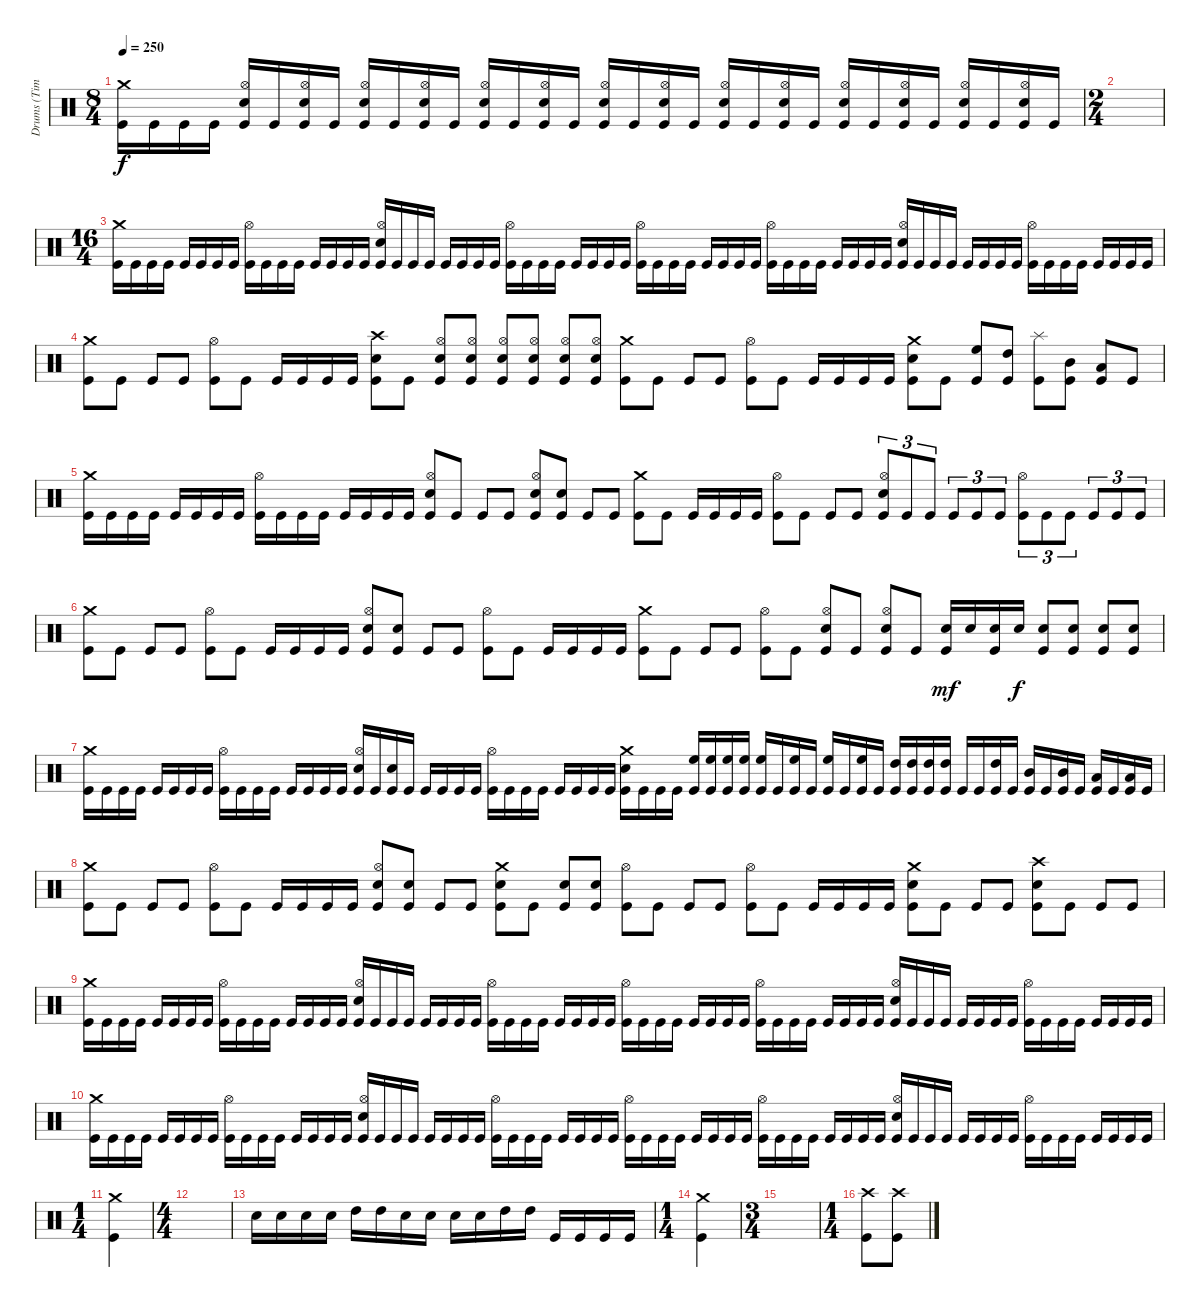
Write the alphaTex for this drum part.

\track ("Drums (Tim Yeung)" "Drums (Tim") {instrument percussion}
\staff {score}
\articulation defaults
\ts (8 4)
\tempo 250
\clef neutral
\ks c
("Crash medium (hit)" "Kick (hit)").16{dy f} "Kick (hit)".16 "Kick (hit)".16 "Kick (hit)".16 ("Hi-Hat (open)" "Electric Snare (hit)" "Kick (hit)").16 "Kick (hit)".16 ("Hi-Hat (open)" "Electric Snare (hit)" "Kick (hit)").16 "Kick (hit)".16 ("Hi-Hat (open)" "Electric Snare (hit)" "Kick (hit)").16 "Kick (hit)".16 ("Hi-Hat (open)" "Electric Snare (hit)" "Kick (hit)").16 "Kick (hit)".16 ("Hi-Hat (open)" "Electric Snare (hit)" "Kick (hit)").16 "Kick (hit)".16 ("Hi-Hat (open)" "Electric Snare (hit)" "Kick (hit)").16 "Kick (hit)".16 ("Hi-Hat (open)" "Electric Snare (hit)" "Kick (hit)").16 "Kick (hit)".16 ("Hi-Hat (open)" "Electric Snare (hit)" "Kick (hit)").16 "Kick (hit)".16 ("Hi-Hat (open)" "Electric Snare (hit)" "Kick (hit)").16 "Kick (hit)".16 ("Hi-Hat (open)" "Electric Snare (hit)" "Kick (hit)").16 "Kick (hit)".16 ("Hi-Hat (open)" "Electric Snare (hit)" "Kick (hit)").16 "Kick (hit)".16 ("Hi-Hat (open)" "Electric Snare (hit)" "Kick (hit)").16 "Kick (hit)".16 ("Hi-Hat (open)" "Electric Snare (hit)" "Kick (hit)").16 "Kick (hit)".16 ("Hi-Hat (open)" "Electric Snare (hit)" "Kick (hit)").16 "Kick (hit)".16 |
\ts (2 4)
|
\ts (16 4)
("Crash medium (hit)" "Kick (hit)").16 "Kick (hit)".16 "Kick (hit)".16 "Kick (hit)".16 "Kick (hit)".16 "Kick (hit)".16 "Kick (hit)".16 "Kick (hit)".16 ("Hi-Hat (open)" "Kick (hit)").16 "Kick (hit)".16 "Kick (hit)".16 "Kick (hit)".16 "Kick (hit)".16 "Kick (hit)".16 "Kick (hit)".16 "Kick (hit)".16 ("Hi-Hat (open)" "Electric Snare (hit)" "Kick (hit)").16 "Kick (hit)".16 "Kick (hit)".16 "Kick (hit)".16 "Kick (hit)".16 "Kick (hit)".16 "Kick (hit)".16 "Kick (hit)".16 ("Hi-Hat (open)" "Kick (hit)").16 "Kick (hit)".16 "Kick (hit)".16 "Kick (hit)".16 "Kick (hit)".16 "Kick (hit)".16 "Kick (hit)".16 "Kick (hit)".16 ("Hi-Hat (open)" "Kick (hit)").16 "Kick (hit)".16 "Kick (hit)".16 "Kick (hit)".16 "Kick (hit)".16 "Kick (hit)".16 "Kick (hit)".16 "Kick (hit)".16 ("Hi-Hat (open)" "Kick (hit)").16 "Kick (hit)".16 "Kick (hit)".16 "Kick (hit)".16 "Kick (hit)".16 "Kick (hit)".16 "Kick (hit)".16 "Kick (hit)".16 ("Hi-Hat (open)" "Electric Snare (hit)" "Kick (hit)").16 "Kick (hit)".16 "Kick (hit)".16 "Kick (hit)".16 "Kick (hit)".16 "Kick (hit)".16 "Kick (hit)".16 "Kick (hit)".16 ("Hi-Hat (open)" "Kick (hit)").16 "Kick (hit)".16 "Kick (hit)".16 "Kick (hit)".16 "Kick (hit)".16 "Kick (hit)".16 "Kick (hit)".16 "Kick (hit)".16 |
("Crash medium (hit)" "Kick (hit)").8 "Kick (hit)".8 "Kick (hit)".8 "Kick (hit)".8 ("Hi-Hat (open)" "Kick (hit)").8 "Kick (hit)".8 "Kick (hit)".16 "Kick (hit)".16 "Kick (hit)".16 "Kick (hit)".16 ("Crash high (hit)" "Electric Snare (hit)" "Kick (hit)").8 "Kick (hit)".8 ("Hi-Hat (open)" "Electric Snare (hit)" "Kick (hit)").8 ("Hi-Hat (open)" "Electric Snare (hit)" "Kick (hit)").8 ("Hi-Hat (open)" "Electric Snare (hit)" "Kick (hit)").8 ("Hi-Hat (open)" "Electric Snare (hit)" "Kick (hit)").8 ("Hi-Hat (open)" "Electric Snare (hit)" "Kick (hit)").8 ("Hi-Hat (open)" "Electric Snare (hit)" "Kick (hit)").8 ("Crash medium (hit)" "Kick (hit)").8 "Kick (hit)".8 "Kick (hit)".8 "Kick (hit)".8 ("Hi-Hat (open)" "Kick (hit)").8 "Kick (hit)".8 "Kick (hit)".16 "Kick (hit)".16 "Kick (hit)".16 "Kick (hit)".16 ("Crash medium (hit)" "Electric Snare (hit)" "Kick (hit)").8 "Kick (hit)".8 ("High Floor Tom (hit)" "Kick (hit)").8 ("High Tom (hit)" "Kick (hit)").8 ("Splash (hit)" "Kick (hit)").8 ("Mid Tom (hit)" "Kick (hit)").8 ("Low Tom (hit)" "Kick (hit)").8 "Kick (hit)".8 |
("Crash medium (hit)" "Kick (hit)").16 "Kick (hit)".16 "Kick (hit)".16 "Kick (hit)".16 "Kick (hit)".16 "Kick (hit)".16 "Kick (hit)".16 "Kick (hit)".16 ("Hi-Hat (open)" "Kick (hit)").16 "Kick (hit)".16 "Kick (hit)".16 "Kick (hit)".16 "Kick (hit)".16 "Kick (hit)".16 "Kick (hit)".16 "Kick (hit)".16 ("Hi-Hat (open)" "Electric Snare (hit)" "Kick (hit)").8 "Kick (hit)".8 "Kick (hit)".8 "Kick (hit)".8 ("Hi-Hat (open)" "Electric Snare (hit)" "Kick (hit)").8 ("Electric Snare (hit)" "Kick (hit)").8 "Kick (hit)".8 "Kick (hit)".8 ("Crash medium (hit)" "Kick (hit)").8 "Kick (hit)".8 "Kick (hit)".16 "Kick (hit)".16 "Kick (hit)".16 "Kick (hit)".16 ("Hi-Hat (open)" "Kick (hit)").8 "Kick (hit)".8 "Kick (hit)".8 "Kick (hit)".8 ("Hi-Hat (open)" "Electric Snare (hit)" "Kick (hit)").8{tu (3 2)} "Kick (hit)".8{tu (3 2)} "Kick (hit)".8{tu (3 2)} "Kick (hit)".8{tu (3 2)} "Kick (hit)".8{tu (3 2)} "Kick (hit)".8{tu (3 2)} ("Hi-Hat (open)" "Kick (hit)").8{tu (3 2)} "Kick (hit)".8{tu (3 2)} "Kick (hit)".8{tu (3 2)} "Kick (hit)".8{tu (3 2)} "Kick (hit)".8{tu (3 2)} "Kick (hit)".8{tu (3 2)} |
("Crash medium (hit)" "Kick (hit)").8 "Kick (hit)".8 "Kick (hit)".8 "Kick (hit)".8 ("Hi-Hat (open)" "Kick (hit)").8 "Kick (hit)".8 "Kick (hit)".16 "Kick (hit)".16 "Kick (hit)".16 "Kick (hit)".16 ("Hi-Hat (open)" "Electric Snare (hit)" "Kick (hit)").8 ("Electric Snare (hit)" "Kick (hit)").8 "Kick (hit)".8 "Kick (hit)".8 ("Hi-Hat (open)" "Kick (hit)").8 "Kick (hit)".8 "Kick (hit)".16 "Kick (hit)".16 "Kick (hit)".16 "Kick (hit)".16 ("Crash medium (hit)" "Kick (hit)").8 "Kick (hit)".8 "Kick (hit)".8 "Kick (hit)".8 ("Hi-Hat (open)" "Kick (hit)").8 "Kick (hit)".8 ("Hi-Hat (open)" "Electric Snare (hit)" "Kick (hit)").8 "Kick (hit)".8 ("Hi-Hat (open)" "Electric Snare (hit)" "Kick (hit)").8 "Kick (hit)".8 ("Electric Snare (hit)" "Kick (hit)").16{dy mf} "Electric Snare (hit)".16 ("Electric Snare (hit)" "Kick (hit)").16 "Electric Snare (hit)".16{dy f} ("Electric Snare (hit)" "Kick (hit)").8 ("Electric Snare (hit)" "Kick (hit)").8 ("Electric Snare (hit)" "Kick (hit)").8 ("Electric Snare (hit)" "Kick (hit)").8 |
("Crash medium (hit)" "Kick (hit)").16 "Kick (hit)".16 "Kick (hit)".16 "Kick (hit)".16 "Kick (hit)".16 "Kick (hit)".16 "Kick (hit)".16 "Kick (hit)".16 ("Hi-Hat (open)" "Kick (hit)").16 "Kick (hit)".16 "Kick (hit)".16 "Kick (hit)".16 "Kick (hit)".16 "Kick (hit)".16 "Kick (hit)".16 "Kick (hit)".16 ("Hi-Hat (open)" "Electric Snare (hit)" "Kick (hit)").16 "Kick (hit)".16 ("Electric Snare (hit)" "Kick (hit)").16 "Kick (hit)".16 "Kick (hit)".16 "Kick (hit)".16 "Kick (hit)".16 "Kick (hit)".16 ("Hi-Hat (open)" "Kick (hit)").16 "Kick (hit)".16 "Kick (hit)".16 "Kick (hit)".16 "Kick (hit)".16 "Kick (hit)".16 "Kick (hit)".16 "Kick (hit)".16 ("Crash medium (hit)" "Electric Snare (hit)" "Kick (hit)").16 "Kick (hit)".16 "Kick (hit)".16 "Kick (hit)".16 ("High Floor Tom (hit)" "Kick (hit)").16 ("High Floor Tom (hit)" "Kick (hit)").16 ("High Floor Tom (hit)" "Kick (hit)").16 ("High Floor Tom (hit)" "Kick (hit)").16 ("High Floor Tom (hit)" "Kick (hit)").16 "Kick (hit)".16 ("High Floor Tom (hit)" "Kick (hit)").16 "Kick (hit)".16 ("High Floor Tom (hit)" "Kick (hit)").16 "Kick (hit)".16 ("High Floor Tom (hit)" "Kick (hit)").16 "Kick (hit)".16 ("High Tom (hit)" "Kick (hit)").16 ("High Tom (hit)" "Kick (hit)").16 ("High Tom (hit)" "Kick (hit)").16 ("High Tom (hit)" "Kick (hit)").16 "Kick (hit)".16 "Kick (hit)".16 ("High Tom (hit)" "Kick (hit)").16 "Kick (hit)".16 ("Mid Tom (hit)" "Kick (hit)").16 "Kick (hit)".16 ("Mid Tom (hit)" "Kick (hit)").16 "Kick (hit)".16 ("Low Tom (hit)" "Kick (hit)").16 "Kick (hit)".16 ("Low Tom (hit)" "Kick (hit)").16 "Kick (hit)".16 |
("Crash medium (hit)" "Kick (hit)").8 "Kick (hit)".8 "Kick (hit)".8 "Kick (hit)".8 ("Hi-Hat (open)" "Kick (hit)").8 "Kick (hit)".8 "Kick (hit)".16 "Kick (hit)".16 "Kick (hit)".16 "Kick (hit)".16 ("Hi-Hat (open)" "Electric Snare (hit)" "Kick (hit)").8 ("Electric Snare (hit)" "Kick (hit)").8 "Kick (hit)".8 "Kick (hit)".8 ("Crash medium (hit)" "Electric Snare (hit)" "Kick (hit)").8 "Kick (hit)".8 ("Electric Snare (hit)" "Kick (hit)").8 ("Electric Snare (hit)" "Kick (hit)").8 ("Hi-Hat (open)" "Kick (hit)").8 "Kick (hit)".8 "Kick (hit)".8 "Kick (hit)".8 ("Hi-Hat (open)" "Kick (hit)").8 "Kick (hit)".8 "Kick (hit)".16 "Kick (hit)".16 "Kick (hit)".16 "Kick (hit)".16 ("Crash medium (hit)" "Electric Snare (hit)" "Kick (hit)").8 "Kick (hit)".8 "Kick (hit)".8 "Kick (hit)".8 ("Crash high (hit)" "Electric Snare (hit)" "Kick (hit)").8 "Kick (hit)".8 "Kick (hit)".8 "Kick (hit)".8 |
("Crash medium (hit)" "Kick (hit)").16 "Kick (hit)".16 "Kick (hit)".16 "Kick (hit)".16 "Kick (hit)".16 "Kick (hit)".16 "Kick (hit)".16 "Kick (hit)".16 ("Hi-Hat (open)" "Kick (hit)").16 "Kick (hit)".16 "Kick (hit)".16 "Kick (hit)".16 "Kick (hit)".16 "Kick (hit)".16 "Kick (hit)".16 "Kick (hit)".16 ("Hi-Hat (open)" "Electric Snare (hit)" "Kick (hit)").16 "Kick (hit)".16 "Kick (hit)".16 "Kick (hit)".16 "Kick (hit)".16 "Kick (hit)".16 "Kick (hit)".16 "Kick (hit)".16 ("Hi-Hat (open)" "Kick (hit)").16 "Kick (hit)".16 "Kick (hit)".16 "Kick (hit)".16 "Kick (hit)".16 "Kick (hit)".16 "Kick (hit)".16 "Kick (hit)".16 ("Hi-Hat (open)" "Kick (hit)").16 "Kick (hit)".16 "Kick (hit)".16 "Kick (hit)".16 "Kick (hit)".16 "Kick (hit)".16 "Kick (hit)".16 "Kick (hit)".16 ("Hi-Hat (open)" "Kick (hit)").16 "Kick (hit)".16 "Kick (hit)".16 "Kick (hit)".16 "Kick (hit)".16 "Kick (hit)".16 "Kick (hit)".16 "Kick (hit)".16 ("Hi-Hat (open)" "Electric Snare (hit)" "Kick (hit)").16 "Kick (hit)".16 "Kick (hit)".16 "Kick (hit)".16 "Kick (hit)".16 "Kick (hit)".16 "Kick (hit)".16 "Kick (hit)".16 ("Hi-Hat (open)" "Kick (hit)").16 "Kick (hit)".16 "Kick (hit)".16 "Kick (hit)".16 "Kick (hit)".16 "Kick (hit)".16 "Kick (hit)".16 "Kick (hit)".16 |
("Crash medium (hit)" "Kick (hit)").16 "Kick (hit)".16 "Kick (hit)".16 "Kick (hit)".16 "Kick (hit)".16 "Kick (hit)".16 "Kick (hit)".16 "Kick (hit)".16 ("Hi-Hat (open)" "Kick (hit)").16 "Kick (hit)".16 "Kick (hit)".16 "Kick (hit)".16 "Kick (hit)".16 "Kick (hit)".16 "Kick (hit)".16 "Kick (hit)".16 ("Hi-Hat (open)" "Electric Snare (hit)" "Kick (hit)").16 "Kick (hit)".16 "Kick (hit)".16 "Kick (hit)".16 "Kick (hit)".16 "Kick (hit)".16 "Kick (hit)".16 "Kick (hit)".16 ("Hi-Hat (open)" "Kick (hit)").16 "Kick (hit)".16 "Kick (hit)".16 "Kick (hit)".16 "Kick (hit)".16 "Kick (hit)".16 "Kick (hit)".16 "Kick (hit)".16 ("Hi-Hat (open)" "Kick (hit)").16 "Kick (hit)".16 "Kick (hit)".16 "Kick (hit)".16 "Kick (hit)".16 "Kick (hit)".16 "Kick (hit)".16 "Kick (hit)".16 ("Hi-Hat (open)" "Kick (hit)").16 "Kick (hit)".16 "Kick (hit)".16 "Kick (hit)".16 "Kick (hit)".16 "Kick (hit)".16 "Kick (hit)".16 "Kick (hit)".16 ("Hi-Hat (open)" "Electric Snare (hit)" "Kick (hit)").16 "Kick (hit)".16 "Kick (hit)".16 "Kick (hit)".16 "Kick (hit)".16 "Kick (hit)".16 "Kick (hit)".16 "Kick (hit)".16 ("Hi-Hat (open)" "Kick (hit)").16 "Kick (hit)".16 "Kick (hit)".16 "Kick (hit)".16 "Kick (hit)".16 "Kick (hit)".16 "Kick (hit)".16 "Kick (hit)".16 |
\ts (1 4)
("Crash medium (hit)" "Kick (hit)").4 |
\ts (4 4)
|
"Electric Snare (hit)".16 "Electric Snare (hit)".16 "Electric Snare (hit)".16 "Electric Snare (hit)".16 "High Tom (hit)".16 "High Tom (hit)".16 "Electric Snare (hit)".16 "Electric Snare (hit)".16 "Electric Snare (hit)".16 "Electric Snare (hit)".16 "High Tom (hit)".16 "High Tom (hit)".16 "Kick (hit)".16 "Kick (hit)".16 "Kick (hit)".16 "Kick (hit)".16 |
\ts (1 4)
("Crash medium (hit)" "Kick (hit)").4 |
\ts (3 4)
|
\ts (1 4)
("Crash high (hit)" "Kick (hit)").8 ("Crash high (hit)" "Kick (hit)").8
